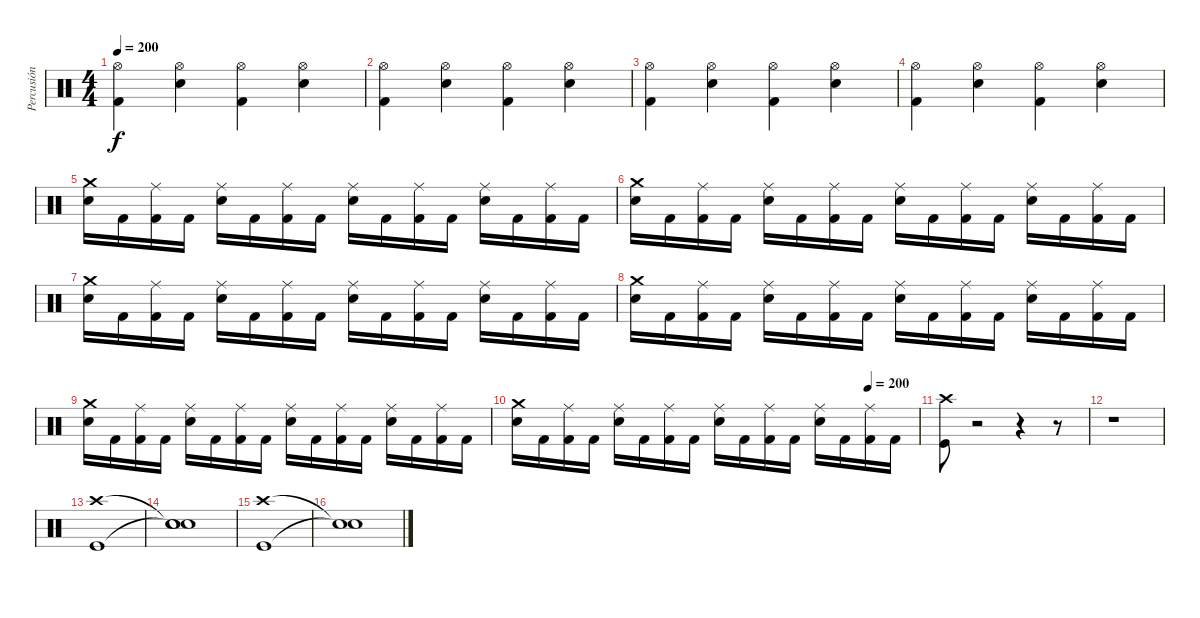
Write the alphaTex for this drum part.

\track ("Percusión" "Percusión") {instrument percussion}
\staff {score}
\articulation defaults
\ts (4 4)
\tempo 200
\clef neutral
\ks c
("Hi-Hat (open)" "Kick (hit) 2").4{dy f} ("Hi-Hat (open)" "Electric Snare (hit)").4 ("Hi-Hat (open)" "Kick (hit) 2").4 ("Hi-Hat (open)" "Electric Snare (hit)").4 |
("Hi-Hat (open)" "Kick (hit) 2").4 ("Hi-Hat (open)" "Electric Snare (hit)").4 ("Hi-Hat (open)" "Kick (hit) 2").4 ("Hi-Hat (open)" "Electric Snare (hit)").4 |
("Hi-Hat (open)" "Kick (hit) 2").4 ("Hi-Hat (open)" "Electric Snare (hit)").4 ("Hi-Hat (open)" "Kick (hit) 2").4 ("Hi-Hat (open)" "Electric Snare (hit)").4 |
("Hi-Hat (open)" "Kick (hit) 2").4 ("Hi-Hat (open)" "Electric Snare (hit)").4 ("Hi-Hat (open)" "Kick (hit) 2").4 ("Hi-Hat (open)" "Electric Snare (hit)").4 |
("Crash medium (hit)" "Electric Snare (hit)").16 "Kick (hit) 2".16 ("Ride (middle)" "Kick (hit) 2").16 "Kick (hit) 2".16 ("Ride (middle)" "Electric Snare (hit)").16 "Kick (hit) 2".16 ("Ride (middle)" "Kick (hit) 2").16 "Kick (hit) 2".16 ("Ride (middle)" "Electric Snare (hit)").16 "Kick (hit) 2".16 ("Ride (middle)" "Kick (hit) 2").16 "Kick (hit) 2".16 ("Ride (middle)" "Electric Snare (hit)").16 "Kick (hit) 2".16 ("Ride (middle)" "Kick (hit) 2").16 "Kick (hit) 2".16 |
("Crash medium (hit)" "Electric Snare (hit)").16 "Kick (hit) 2".16 ("Ride (middle)" "Kick (hit) 2").16 "Kick (hit) 2".16 ("Ride (middle)" "Electric Snare (hit)").16 "Kick (hit) 2".16 ("Ride (middle)" "Kick (hit) 2").16 "Kick (hit) 2".16 ("Ride (middle)" "Electric Snare (hit)").16 "Kick (hit) 2".16 ("Ride (middle)" "Kick (hit) 2").16 "Kick (hit) 2".16 ("Ride (middle)" "Electric Snare (hit)").16 "Kick (hit) 2".16 ("Ride (middle)" "Kick (hit) 2").16 "Kick (hit) 2".16 |
("Crash medium (hit)" "Electric Snare (hit)").16 "Kick (hit) 2".16 ("Ride (middle)" "Kick (hit) 2").16 "Kick (hit) 2".16 ("Ride (middle)" "Electric Snare (hit)").16 "Kick (hit) 2".16 ("Ride (middle)" "Kick (hit) 2").16 "Kick (hit) 2".16 ("Ride (middle)" "Electric Snare (hit)").16 "Kick (hit) 2".16 ("Ride (middle)" "Kick (hit) 2").16 "Kick (hit) 2".16 ("Ride (middle)" "Electric Snare (hit)").16 "Kick (hit) 2".16 ("Ride (middle)" "Kick (hit) 2").16 "Kick (hit) 2".16 |
("Crash medium (hit)" "Electric Snare (hit)").16 "Kick (hit) 2".16 ("Ride (middle)" "Kick (hit) 2").16 "Kick (hit) 2".16 ("Ride (middle)" "Electric Snare (hit)").16 "Kick (hit) 2".16 ("Ride (middle)" "Kick (hit) 2").16 "Kick (hit) 2".16 ("Ride (middle)" "Electric Snare (hit)").16 "Kick (hit) 2".16 ("Ride (middle)" "Kick (hit) 2").16 "Kick (hit) 2".16 ("Ride (middle)" "Electric Snare (hit)").16 "Kick (hit) 2".16 ("Ride (middle)" "Kick (hit) 2").16 "Kick (hit) 2".16 |
("Crash medium (hit)" "Electric Snare (hit)").16 "Kick (hit) 2".16 ("Ride (middle)" "Kick (hit) 2").16 "Kick (hit) 2".16 ("Ride (middle)" "Electric Snare (hit)").16 "Kick (hit) 2".16 ("Ride (middle)" "Kick (hit) 2").16 "Kick (hit) 2".16 ("Ride (middle)" "Electric Snare (hit)").16 "Kick (hit) 2".16 ("Ride (middle)" "Kick (hit) 2").16 "Kick (hit) 2".16 ("Ride (middle)" "Electric Snare (hit)").16 "Kick (hit) 2".16 ("Ride (middle)" "Kick (hit) 2").16 "Kick (hit) 2".16 |
\tempo (200 0.875)
("Crash medium (hit)" "Electric Snare (hit)").16 "Kick (hit) 2".16 ("Ride (middle)" "Kick (hit) 2").16 "Kick (hit) 2".16 ("Ride (middle)" "Electric Snare (hit)").16 "Kick (hit) 2".16 ("Ride (middle)" "Kick (hit) 2").16 "Kick (hit) 2".16 ("Ride (middle)" "Electric Snare (hit)").16 "Kick (hit) 2".16 ("Ride (middle)" "Kick (hit) 2").16 "Kick (hit) 2".16 ("Ride (middle)" "Electric Snare (hit)").16 "Kick (hit) 2".16 ("Ride (middle)" "Kick (hit) 2").16 "Kick (hit) 2".16 |
("Crash high (hit)" "Kick (hit)").8 r.2 r.4 r.8 |
r.1 |
("Crash high (hit)" "Kick (hit)").1 |
("Snare (hit)"{t} "Snare (hit)"{t} "Snare (hit)").1 |
("Crash high (hit)" "Kick (hit)").1 |
("Snare (hit)"{t} "Snare (hit)"{t}).1
